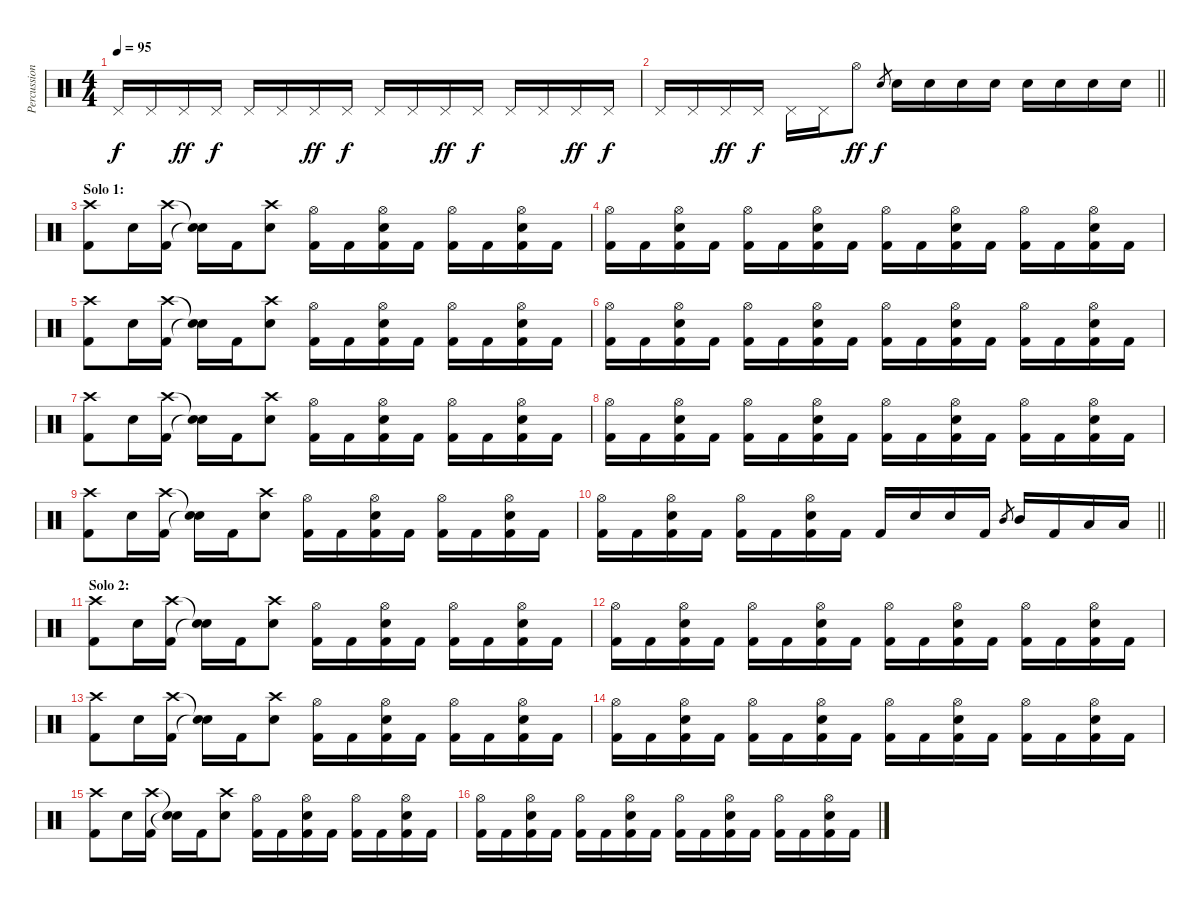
\track ("Percussion" "Percussion") {instrument percussion}
\staff {score}
\articulation defaults
\ts (4 4)
\tempo 95
\clef neutral
\ks c "Pedal Hi-Hat (hit)".16{dy f} "Pedal Hi-Hat (hit)".16 "Pedal Hi-Hat (hit)".16{dy ff} "Pedal Hi-Hat (hit)".16{dy f} "Pedal Hi-Hat (hit)".16 "Pedal Hi-Hat (hit)".16 "Pedal Hi-Hat (hit)".16{dy ff} "Pedal Hi-Hat (hit)".16{dy f} "Pedal Hi-Hat (hit)".16 "Pedal Hi-Hat (hit)".16 "Pedal Hi-Hat (hit)".16{dy ff} "Pedal Hi-Hat (hit)".16{dy f} "Pedal Hi-Hat (hit)".16 "Pedal Hi-Hat (hit)".16 "Pedal Hi-Hat (hit)".16{dy ff} "Pedal Hi-Hat (hit)".16{dy f}
|
\barLineRight lightlight "Pedal Hi-Hat (hit)".16 "Pedal Hi-Hat (hit)".16 "Pedal Hi-Hat (hit)".16{dy ff} "Pedal Hi-Hat (hit)".16{dy f} "Pedal Hi-Hat (hit)".16 "Pedal Hi-Hat (hit)".16 "Hi-Hat (open)".8{dy ff} "Electric Snare (hit)".8{gr dy f} "Electric Snare (hit)".16 "Electric Snare (hit)".16 "Electric Snare (hit)".16 "Electric Snare (hit)".16 "Electric Snare (hit)".16 "Electric Snare (hit)".16 "Electric Snare (hit)".16 "Electric Snare (hit)".16
|
\section ("" "Solo 1:")
("Crash high (hit)" "Kick (hit) 2").8 "Electric Snare (hit)".16 ("Crash high (hit)" "Kick (hit) 2").16 ("Snare (hit)"{t} "Snare (hit)"{t}).16 "Kick (hit) 2".16 ("Crash high (hit)" "Electric Snare (hit)").8 ("Hi-Hat (open)" "Kick (hit) 2").16 "Kick (hit) 2".16 ("Hi-Hat (open)" "Electric Snare (hit)" "Kick (hit) 2").16 "Kick (hit) 2".16 ("Hi-Hat (open)" "Kick (hit) 2").16 "Kick (hit) 2".16 ("Hi-Hat (open)" "Electric Snare (hit)" "Kick (hit) 2").16 "Kick (hit) 2".16 |
("Hi-Hat (open)" "Kick (hit) 2").16 "Kick (hit) 2".16 ("Hi-Hat (open)" "Electric Snare (hit)" "Kick (hit) 2").16 "Kick (hit) 2".16 ("Hi-Hat (open)" "Kick (hit) 2").16 "Kick (hit) 2".16 ("Hi-Hat (open)" "Electric Snare (hit)" "Kick (hit) 2").16 "Kick (hit) 2".16 ("Hi-Hat (open)" "Kick (hit) 2").16 "Kick (hit) 2".16 ("Hi-Hat (open)" "Electric Snare (hit)" "Kick (hit) 2").16 "Kick (hit) 2".16 ("Hi-Hat (open)" "Kick (hit) 2").16 "Kick (hit) 2".16 ("Hi-Hat (open)" "Electric Snare (hit)" "Kick (hit) 2").16 "Kick (hit) 2".16 |
("Crash high (hit)" "Kick (hit) 2").8 "Electric Snare (hit)".16 ("Crash high (hit)" "Kick (hit) 2").16 ("Snare (hit)"{t} "Snare (hit)"{t}).16 "Kick (hit) 2".16 ("Crash high (hit)" "Electric Snare (hit)").8 ("Hi-Hat (open)" "Kick (hit) 2").16 "Kick (hit) 2".16 ("Hi-Hat (open)" "Electric Snare (hit)" "Kick (hit) 2").16 "Kick (hit) 2".16 ("Hi-Hat (open)" "Kick (hit) 2").16 "Kick (hit) 2".16 ("Hi-Hat (open)" "Electric Snare (hit)" "Kick (hit) 2").16 "Kick (hit) 2".16 |
("Hi-Hat (open)" "Kick (hit) 2").16 "Kick (hit) 2".16 ("Hi-Hat (open)" "Electric Snare (hit)" "Kick (hit) 2").16 "Kick (hit) 2".16 ("Hi-Hat (open)" "Kick (hit) 2").16 "Kick (hit) 2".16 ("Hi-Hat (open)" "Electric Snare (hit)" "Kick (hit) 2").16 "Kick (hit) 2".16 ("Hi-Hat (open)" "Kick (hit) 2").16 "Kick (hit) 2".16 ("Hi-Hat (open)" "Electric Snare (hit)" "Kick (hit) 2").16 "Kick (hit) 2".16 ("Hi-Hat (open)" "Kick (hit) 2").16 "Kick (hit) 2".16 ("Hi-Hat (open)" "Electric Snare (hit)" "Kick (hit) 2").16 "Kick (hit) 2".16 |
("Crash high (hit)" "Kick (hit) 2").8 "Electric Snare (hit)".16 ("Crash high (hit)" "Kick (hit) 2").16 ("Snare (hit)"{t} "Snare (hit)"{t}).16 "Kick (hit) 2".16 ("Crash high (hit)" "Electric Snare (hit)").8 ("Hi-Hat (open)" "Kick (hit) 2").16 "Kick (hit) 2".16 ("Hi-Hat (open)" "Electric Snare (hit)" "Kick (hit) 2").16 "Kick (hit) 2".16 ("Hi-Hat (open)" "Kick (hit) 2").16 "Kick (hit) 2".16 ("Hi-Hat (open)" "Electric Snare (hit)" "Kick (hit) 2").16 "Kick (hit) 2".16 |
("Hi-Hat (open)" "Kick (hit) 2").16 "Kick (hit) 2".16 ("Hi-Hat (open)" "Electric Snare (hit)" "Kick (hit) 2").16 "Kick (hit) 2".16 ("Hi-Hat (open)" "Kick (hit) 2").16 "Kick (hit) 2".16 ("Hi-Hat (open)" "Electric Snare (hit)" "Kick (hit) 2").16 "Kick (hit) 2".16 ("Hi-Hat (open)" "Kick (hit) 2").16 "Kick (hit) 2".16 ("Hi-Hat (open)" "Electric Snare (hit)" "Kick (hit) 2").16 "Kick (hit) 2".16 ("Hi-Hat (open)" "Kick (hit) 2").16 "Kick (hit) 2".16 ("Hi-Hat (open)" "Electric Snare (hit)" "Kick (hit) 2").16 "Kick (hit) 2".16 |
("Crash high (hit)" "Kick (hit) 2").8 "Electric Snare (hit)".16 ("Crash high (hit)" "Kick (hit) 2").16 ("Snare (hit)"{t} "Snare (hit)"{t}).16 "Kick (hit) 2".16 ("Crash high (hit)" "Electric Snare (hit)").8 ("Hi-Hat (open)" "Kick (hit) 2").16 "Kick (hit) 2".16 ("Hi-Hat (open)" "Electric Snare (hit)" "Kick (hit) 2").16 "Kick (hit) 2".16 ("Hi-Hat (open)" "Kick (hit) 2").16 "Kick (hit) 2".16 ("Hi-Hat (open)" "Electric Snare (hit)" "Kick (hit) 2").16 "Kick (hit) 2".16 |
\barLineRight lightlight
("Hi-Hat (open)" "Kick (hit) 2").16 "Kick (hit) 2".16 ("Hi-Hat (open)" "Electric Snare (hit)" "Kick (hit) 2").16 "Kick (hit) 2".16 ("Hi-Hat (open)" "Kick (hit) 2").16 "Kick (hit) 2".16 ("Hi-Hat (open)" "Electric Snare (hit)" "Kick (hit) 2").16 "Kick (hit) 2".16 "Kick (hit) 2".16 "Electric Snare (hit)".16 "Electric Snare (hit)".16 "Kick (hit) 2".16 "Mid Tom (hit)".8{gr} "Mid Tom (hit)".16 "Kick (hit) 2".16 "Low Tom (hit)".16 "Low Tom (hit)".16 |
\section ("" "Solo 2:")
("Crash high (hit)" "Kick (hit) 2").8 "Electric Snare (hit)".16 ("Crash high (hit)" "Kick (hit) 2").16 ("Snare (hit)"{t} "Snare (hit)"{t}).16 "Kick (hit) 2".16 ("Crash high (hit)" "Electric Snare (hit)").8 ("Hi-Hat (open)" "Kick (hit) 2").16 "Kick (hit) 2".16 ("Hi-Hat (open)" "Electric Snare (hit)" "Kick (hit) 2").16 "Kick (hit) 2".16 ("Hi-Hat (open)" "Kick (hit) 2").16 "Kick (hit) 2".16 ("Hi-Hat (open)" "Electric Snare (hit)" "Kick (hit) 2").16 "Kick (hit) 2".16 |
("Hi-Hat (open)" "Kick (hit) 2").16 "Kick (hit) 2".16 ("Hi-Hat (open)" "Electric Snare (hit)" "Kick (hit) 2").16 "Kick (hit) 2".16 ("Hi-Hat (open)" "Kick (hit) 2").16 "Kick (hit) 2".16 ("Hi-Hat (open)" "Electric Snare (hit)" "Kick (hit) 2").16 "Kick (hit) 2".16 ("Hi-Hat (open)" "Kick (hit) 2").16 "Kick (hit) 2".16 ("Hi-Hat (open)" "Electric Snare (hit)" "Kick (hit) 2").16 "Kick (hit) 2".16 ("Hi-Hat (open)" "Kick (hit) 2").16 "Kick (hit) 2".16 ("Hi-Hat (open)" "Electric Snare (hit)" "Kick (hit) 2").16 "Kick (hit) 2".16 |
("Crash high (hit)" "Kick (hit) 2").8 "Electric Snare (hit)".16 ("Crash high (hit)" "Kick (hit) 2").16 ("Snare (hit)"{t} "Snare (hit)"{t}).16 "Kick (hit) 2".16 ("Crash high (hit)" "Electric Snare (hit)").8 ("Hi-Hat (open)" "Kick (hit) 2").16 "Kick (hit) 2".16 ("Hi-Hat (open)" "Electric Snare (hit)" "Kick (hit) 2").16 "Kick (hit) 2".16 ("Hi-Hat (open)" "Kick (hit) 2").16 "Kick (hit) 2".16 ("Hi-Hat (open)" "Electric Snare (hit)" "Kick (hit) 2").16 "Kick (hit) 2".16 |
("Hi-Hat (open)" "Kick (hit) 2").16 "Kick (hit) 2".16 ("Hi-Hat (open)" "Electric Snare (hit)" "Kick (hit) 2").16 "Kick (hit) 2".16 ("Hi-Hat (open)" "Kick (hit) 2").16 "Kick (hit) 2".16 ("Hi-Hat (open)" "Electric Snare (hit)" "Kick (hit) 2").16 "Kick (hit) 2".16 ("Hi-Hat (open)" "Kick (hit) 2").16 "Kick (hit) 2".16 ("Hi-Hat (open)" "Electric Snare (hit)" "Kick (hit) 2").16 "Kick (hit) 2".16 ("Hi-Hat (open)" "Kick (hit) 2").16 "Kick (hit) 2".16 ("Hi-Hat (open)" "Electric Snare (hit)" "Kick (hit) 2").16 "Kick (hit) 2".16 |
("Crash high (hit)" "Kick (hit) 2").8 "Electric Snare (hit)".16 ("Crash high (hit)" "Kick (hit) 2").16 ("Snare (hit)"{t} "Snare (hit)"{t}).16 "Kick (hit) 2".16 ("Crash high (hit)" "Electric Snare (hit)").8 ("Hi-Hat (open)" "Kick (hit) 2").16 "Kick (hit) 2".16 ("Hi-Hat (open)" "Electric Snare (hit)" "Kick (hit) 2").16 "Kick (hit) 2".16 ("Hi-Hat (open)" "Kick (hit) 2").16 "Kick (hit) 2".16 ("Hi-Hat (open)" "Electric Snare (hit)" "Kick (hit) 2").16 "Kick (hit) 2".16 |
("Hi-Hat (open)" "Kick (hit) 2").16 "Kick (hit) 2".16 ("Hi-Hat (open)" "Electric Snare (hit)" "Kick (hit) 2").16 "Kick (hit) 2".16 ("Hi-Hat (open)" "Kick (hit) 2").16 "Kick (hit) 2".16 ("Hi-Hat (open)" "Electric Snare (hit)" "Kick (hit) 2").16 "Kick (hit) 2".16 ("Hi-Hat (open)" "Kick (hit) 2").16 "Kick (hit) 2".16 ("Hi-Hat (open)" "Electric Snare (hit)" "Kick (hit) 2").16 "Kick (hit) 2".16 ("Hi-Hat (open)" "Kick (hit) 2").16 "Kick (hit) 2".16 ("Hi-Hat (open)" "Electric Snare (hit)" "Kick (hit) 2").16 "Kick (hit) 2".16
